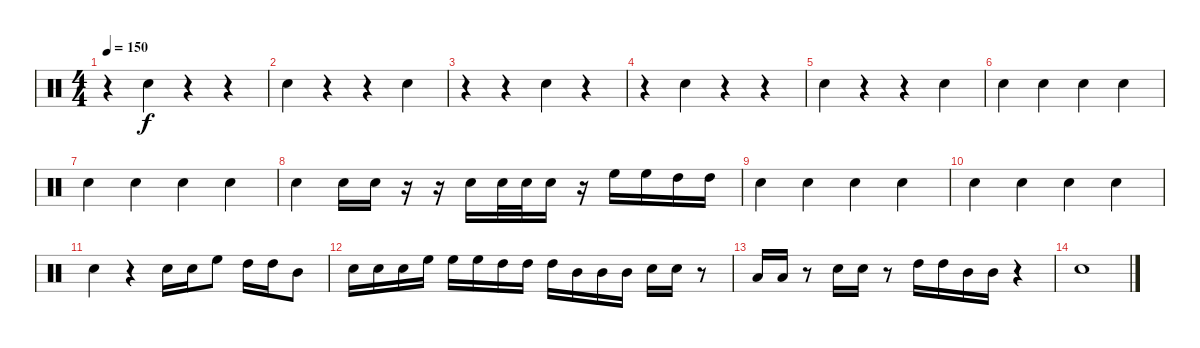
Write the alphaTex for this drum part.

\track "" {instrument percussion}
\staff {score}
\articulation defaults
\ts (4 4)
\tempo 150
\clef neutral
\ks c
r.4{dy f} "Electric Snare (hit)".4 r.4 r.4 |
"Electric Snare (hit)".4 r.4 r.4 "Electric Snare (hit)".4 |
r.4 r.4 "Electric Snare (hit)".4 r.4 |
r.4 "Electric Snare (hit)".4 r.4 r.4 |
"Electric Snare (hit)".4 r.4 r.4 "Electric Snare (hit)".4 |
"Electric Snare (hit)".4 "Electric Snare (hit)".4 "Electric Snare (hit)".4 "Electric Snare (hit)".4 |
"Electric Snare (hit)".4 "Electric Snare (hit)".4 "Electric Snare (hit)".4 "Electric Snare (hit)".4 |
"Electric Snare (hit)".4 "Electric Snare (hit)".16 "Electric Snare (hit)".16 r.16 r.16 "Electric Snare (hit)".16 "Electric Snare (hit)".32 "Electric Snare (hit)".32 "Electric Snare (hit)".16 r.16 "High Floor Tom (hit)".16 "High Floor Tom (hit)".16 "High Tom (hit)".16 "High Tom (hit)".16 |
"Electric Snare (hit)".4 "Electric Snare (hit)".4 "Electric Snare (hit)".4 "Electric Snare (hit)".4 |
"Electric Snare (hit)".4 "Electric Snare (hit)".4 "Electric Snare (hit)".4 "Electric Snare (hit)".4 |
"Electric Snare (hit)".4 r.4 "Electric Snare (hit)".16 "Electric Snare (hit)".16 "High Floor Tom (hit)".8 "High Tom (hit)".16 "High Tom (hit)".16 "Mid Tom (hit)".8 |
"Electric Snare (hit)".16 "Electric Snare (hit)".16 "Electric Snare (hit)".16 "High Floor Tom (hit)".16 "High Floor Tom (hit)".16 "High Floor Tom (hit)".16 "High Tom (hit)".16 "High Tom (hit)".16 "High Tom (hit)".16 "Mid Tom (hit)".16 "Mid Tom (hit)".16 "Mid Tom (hit)".16 "Electric Snare (hit)".16 "Electric Snare (hit)".16 r.8 |
"Low Tom (hit)".16 "Low Tom (hit)".16 r.8 "Electric Snare (hit)".16 "Electric Snare (hit)".16 r.8 "High Tom (hit)".16 "High Tom (hit)".16 "Mid Tom (hit)".16 "Mid Tom (hit)".16 r.4 |
"Electric Snare (hit)".1
